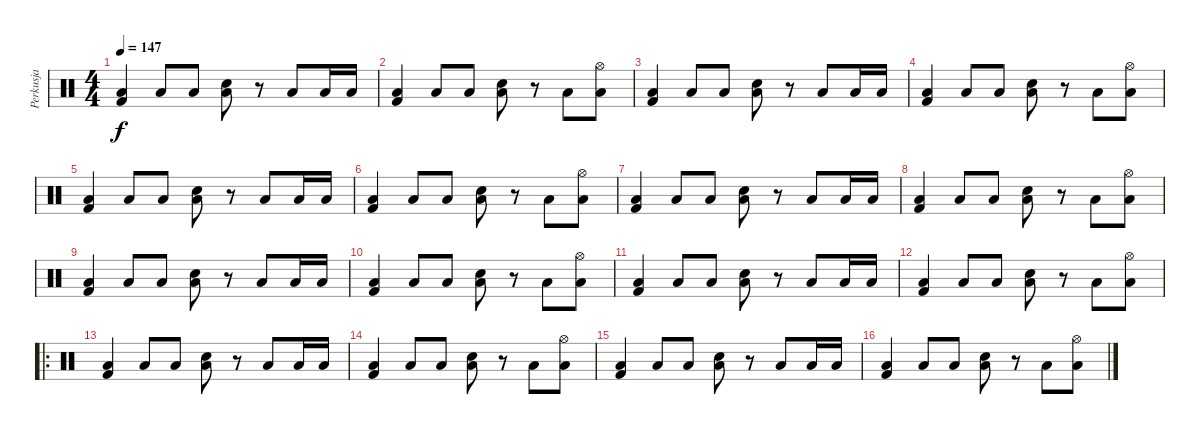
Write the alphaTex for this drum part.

\track ("Perkusja" "Perkusja") {instrument percussion}
\staff {score}
\articulation defaults
\ts (4 4)
\tempo 147
\clef neutral
\ks c
("Low Tom (hit)" "Kick (hit) 2").4{dy f} "Low Tom (hit)".8 "Low Tom (hit)".8 ("Low Tom (hit)" "Snare (hit) 2").8 r.8 "Low Tom (hit)".8 "Low Tom (hit)".16 "Low Tom (hit)".16 |
("Low Tom (hit)" "Kick (hit) 2").4 "Low Tom (hit)".8 "Low Tom (hit)".8 ("Low Tom (hit)" "Snare (hit) 2").8 r.8 "Low Tom (hit)".8 ("Hi-Hat (open)" "Low Tom (hit)").8 |
("Low Tom (hit)" "Kick (hit) 2").4 "Low Tom (hit)".8 "Low Tom (hit)".8 ("Low Tom (hit)" "Snare (hit) 2").8 r.8 "Low Tom (hit)".8 "Low Tom (hit)".16 "Low Tom (hit)".16 |
("Low Tom (hit)" "Kick (hit) 2").4 "Low Tom (hit)".8 "Low Tom (hit)".8 ("Low Tom (hit)" "Snare (hit) 2").8 r.8 "Low Tom (hit)".8 ("Hi-Hat (open)" "Low Tom (hit)").8 |
("Low Tom (hit)" "Kick (hit) 2").4 "Low Tom (hit)".8 "Low Tom (hit)".8 ("Low Tom (hit)" "Snare (hit) 2").8 r.8 "Low Tom (hit)".8 "Low Tom (hit)".16 "Low Tom (hit)".16 |
("Low Tom (hit)" "Kick (hit) 2").4 "Low Tom (hit)".8 "Low Tom (hit)".8 ("Low Tom (hit)" "Snare (hit) 2").8 r.8 "Low Tom (hit)".8 ("Hi-Hat (open)" "Low Tom (hit)").8 |
("Low Tom (hit)" "Kick (hit) 2").4 "Low Tom (hit)".8 "Low Tom (hit)".8 ("Low Tom (hit)" "Snare (hit) 2").8 r.8 "Low Tom (hit)".8 "Low Tom (hit)".16 "Low Tom (hit)".16 |
("Low Tom (hit)" "Kick (hit) 2").4 "Low Tom (hit)".8 "Low Tom (hit)".8 ("Low Tom (hit)" "Snare (hit) 2").8 r.8 "Low Tom (hit)".8 ("Hi-Hat (open)" "Low Tom (hit)").8 |
("Low Tom (hit)" "Kick (hit) 2").4 "Low Tom (hit)".8 "Low Tom (hit)".8 ("Low Tom (hit)" "Snare (hit) 2").8 r.8 "Low Tom (hit)".8 "Low Tom (hit)".16 "Low Tom (hit)".16 |
("Low Tom (hit)" "Kick (hit) 2").4 "Low Tom (hit)".8 "Low Tom (hit)".8 ("Low Tom (hit)" "Snare (hit) 2").8 r.8 "Low Tom (hit)".8 ("Hi-Hat (open)" "Low Tom (hit)").8 |
("Low Tom (hit)" "Kick (hit) 2").4 "Low Tom (hit)".8 "Low Tom (hit)".8 ("Low Tom (hit)" "Snare (hit) 2").8 r.8 "Low Tom (hit)".8 "Low Tom (hit)".16 "Low Tom (hit)".16 |
("Low Tom (hit)" "Kick (hit) 2").4 "Low Tom (hit)".8 "Low Tom (hit)".8 ("Low Tom (hit)" "Snare (hit) 2").8 r.8 "Low Tom (hit)".8 ("Hi-Hat (open)" "Low Tom (hit)").8 |
\ro
("Low Tom (hit)" "Kick (hit) 2").4 "Low Tom (hit)".8 "Low Tom (hit)".8 ("Low Tom (hit)" "Snare (hit) 2").8 r.8 "Low Tom (hit)".8 "Low Tom (hit)".16 "Low Tom (hit)".16 |
("Low Tom (hit)" "Kick (hit) 2").4 "Low Tom (hit)".8 "Low Tom (hit)".8 ("Low Tom (hit)" "Snare (hit) 2").8 r.8 "Low Tom (hit)".8 ("Hi-Hat (open)" "Low Tom (hit)").8 |
("Low Tom (hit)" "Kick (hit) 2").4 "Low Tom (hit)".8 "Low Tom (hit)".8 ("Low Tom (hit)" "Snare (hit) 2").8 r.8 "Low Tom (hit)".8 "Low Tom (hit)".16 "Low Tom (hit)".16 |
("Low Tom (hit)" "Kick (hit) 2").4 "Low Tom (hit)".8 "Low Tom (hit)".8 ("Low Tom (hit)" "Snare (hit) 2").8 r.8 "Low Tom (hit)".8 ("Hi-Hat (open)" "Low Tom (hit)").8
